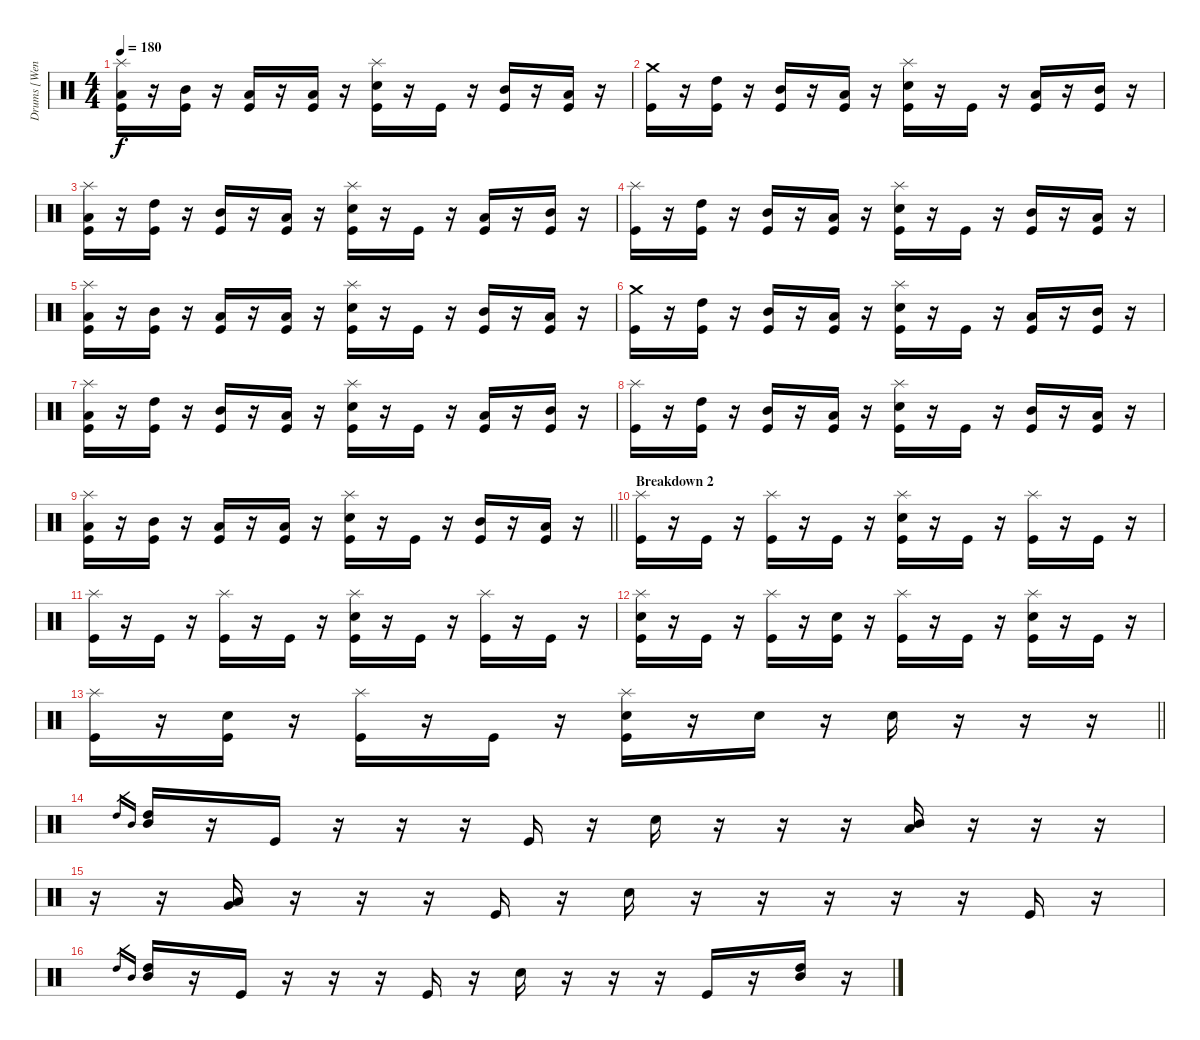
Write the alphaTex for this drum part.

\track ("Drums [Wengren]" "Drums [Wen") {instrument percussion}
\staff {score}
\articulation defaults
\ts (4 4)
\tempo 180
\clef neutral
\ks c
("Splash (hit)" "Low Floor Tom (hit)" "Kick (hit)").16{dy f} r.16 ("Mid Tom (hit)" "Kick (hit)").16 r.16 ("Low Tom (hit)" "Kick (hit)").16 r.16 ("Low Floor Tom (hit)" "Kick (hit)").16 r.16 ("Splash (hit)" "Electric Snare (hit)" "Kick (hit)").16 r.16 "Kick (hit)".16 r.16 ("Mid Tom (hit)" "Kick (hit)").16 r.16 ("Low Floor Tom (hit)" "Kick (hit)").16 r.16 |
("Crash medium (hit)" "Kick (hit)").16 r.16 ("High Tom (hit)" "Kick (hit)").16 r.16 ("Mid Tom (hit)" "Kick (hit)").16 r.16 ("Low Tom (hit)" "Kick (hit)").16 r.16 ("Splash (hit)" "Electric Snare (hit)" "Kick (hit)").16 r.16 "Kick (hit)".16 r.16 ("Low Tom (hit)" "Kick (hit)").16 r.16 ("Mid Tom (hit)" "Kick (hit)").16 r.16 |
("Splash (hit)" "Low Floor Tom (hit)" "Kick (hit)").16 r.16 ("High Tom (hit)" "Kick (hit)").16 r.16 ("Mid Tom (hit)" "Kick (hit)").16 r.16 ("Low Tom (hit)" "Kick (hit)").16 r.16 ("Splash (hit)" "Electric Snare (hit)" "Kick (hit)").16 r.16 "Kick (hit)".16 r.16 ("Low Tom (hit)" "Kick (hit)").16 r.16 ("Mid Tom (hit)" "Kick (hit)").16 r.16 |
("Splash (hit)" "Kick (hit)").16 r.16 ("High Tom (hit)" "Kick (hit)").16 r.16 ("Mid Tom (hit)" "Kick (hit)").16 r.16 ("Low Tom (hit)" "Kick (hit)").16 r.16 ("Splash (hit)" "Electric Snare (hit)" "Kick (hit)").16 r.16 "Kick (hit)".16 r.16 ("Mid Tom (hit)" "Kick (hit)").16 r.16 ("Low Tom (hit)" "Kick (hit)").16 r.16 |
("Splash (hit)" "Low Floor Tom (hit)" "Kick (hit)").16 r.16 ("Mid Tom (hit)" "Kick (hit)").16 r.16 ("Low Tom (hit)" "Kick (hit)").16 r.16 ("Low Floor Tom (hit)" "Kick (hit)").16 r.16 ("Splash (hit)" "Electric Snare (hit)" "Kick (hit)").16 r.16 "Kick (hit)".16 r.16 ("Mid Tom (hit)" "Kick (hit)").16 r.16 ("Low Floor Tom (hit)" "Kick (hit)").16 r.16 |
("Crash medium (hit)" "Kick (hit)").16 r.16 ("High Tom (hit)" "Kick (hit)").16 r.16 ("Mid Tom (hit)" "Kick (hit)").16 r.16 ("Low Tom (hit)" "Kick (hit)").16 r.16 ("Splash (hit)" "Electric Snare (hit)" "Kick (hit)").16 r.16 "Kick (hit)".16 r.16 ("Low Tom (hit)" "Kick (hit)").16 r.16 ("Mid Tom (hit)" "Kick (hit)").16 r.16 |
("Splash (hit)" "Low Floor Tom (hit)" "Kick (hit)").16 r.16 ("High Tom (hit)" "Kick (hit)").16 r.16 ("Mid Tom (hit)" "Kick (hit)").16 r.16 ("Low Tom (hit)" "Kick (hit)").16 r.16 ("Splash (hit)" "Electric Snare (hit)" "Kick (hit)").16 r.16 "Kick (hit)".16 r.16 ("Low Tom (hit)" "Kick (hit)").16 r.16 ("Mid Tom (hit)" "Kick (hit)").16 r.16 |
("Splash (hit)" "Kick (hit)").16 r.16 ("High Tom (hit)" "Kick (hit)").16 r.16 ("Mid Tom (hit)" "Kick (hit)").16 r.16 ("Low Tom (hit)" "Kick (hit)").16 r.16 ("Splash (hit)" "Electric Snare (hit)" "Kick (hit)").16 r.16 "Kick (hit)".16 r.16 ("Mid Tom (hit)" "Kick (hit)").16 r.16 ("Low Tom (hit)" "Kick (hit)").16 r.16 |
\barLineRight lightlight
("Splash (hit)" "Low Floor Tom (hit)" "Kick (hit)").16 r.16 ("Mid Tom (hit)" "Kick (hit)").16 r.16 ("Low Tom (hit)" "Kick (hit)").16 r.16 ("Low Floor Tom (hit)" "Kick (hit)").16 r.16 ("Splash (hit)" "Electric Snare (hit)" "Kick (hit)").16 r.16 "Kick (hit)".16 r.16 ("Mid Tom (hit)" "Kick (hit)").16 r.16 ("Low Floor Tom (hit)" "Kick (hit)").16 r.16 |
\section ("" "Breakdown 2")
("Splash (hit)" "Kick (hit)").16 r.16 "Kick (hit)".16 r.16 ("Splash (hit)" "Kick (hit)").16 r.16 "Kick (hit)".16 r.16 ("Splash (hit)" "Electric Snare (hit)" "Kick (hit)").16 r.16 "Kick (hit)".16 r.16 ("Splash (hit)" "Kick (hit)").16 r.16 "Kick (hit)".16 r.16 |
("Splash (hit)" "Kick (hit)").16 r.16 "Kick (hit)".16 r.16 ("Splash (hit)" "Kick (hit)").16 r.16 "Kick (hit)".16 r.16 ("Splash (hit)" "Electric Snare (hit)" "Kick (hit)").16 r.16 "Kick (hit)".16 r.16 ("Splash (hit)" "Kick (hit)").16 r.16 "Kick (hit)".16 r.16 |
("Splash (hit)" "Electric Snare (hit)" "Kick (hit)").16 r.16 "Kick (hit)".16 r.16 ("Splash (hit)" "Kick (hit)").16 r.16 ("Electric Snare (hit)" "Kick (hit)").16 r.16 ("Splash (hit)" "Kick (hit)").16 r.16 "Kick (hit)".16 r.16 ("Splash (hit)" "Electric Snare (hit)" "Kick (hit)").16 r.16 "Kick (hit)".16 r.16 |
\barLineRight lightlight
("Splash (hit)" "Kick (hit)").16 r.16 ("Electric Snare (hit)" "Kick (hit)").16 r.16 ("Splash (hit)" "Kick (hit)").16 r.16 "Kick (hit)".16 r.16 ("Splash (hit)" "Electric Snare (hit)" "Kick (hit)").16 r.16 "Electric Snare (hit)".16 r.16 "Electric Snare (hit)".16 r.16 r.16 r.16 |
"High Tom (hit)".16{gr} "Mid Tom (hit)".16{gr} ("High Tom (hit)" "Mid Tom (hit)").16 r.16 "Kick (hit)".16 r.16 r.16 r.16 "Kick (hit)".16 r.16 "Electric Snare (hit)".16 r.16 r.16 r.16 ("Mid Tom (hit)" "Low Tom (hit)").16 r.16 r.16 r.16 |
r.16 r.16 ("Very Low Tom (hit)" "Low Floor Tom (hit)").16 r.16 r.16 r.16 "Kick (hit)".16 r.16 "Electric Snare (hit)".16 r.16 r.16 r.16 r.16 r.16 "Kick (hit)".16 r.16 |
"High Tom (hit)".16{gr} "Mid Tom (hit)".16{gr} ("High Tom (hit)" "Mid Tom (hit)").16 r.16 "Kick (hit)".16 r.16 r.16 r.16 "Kick (hit)".16 r.16 "Electric Snare (hit)".16 r.16 r.16 r.16 "Kick (hit)".16 r.16 ("High Tom (hit)" "Mid Tom (hit)").16 r.16
